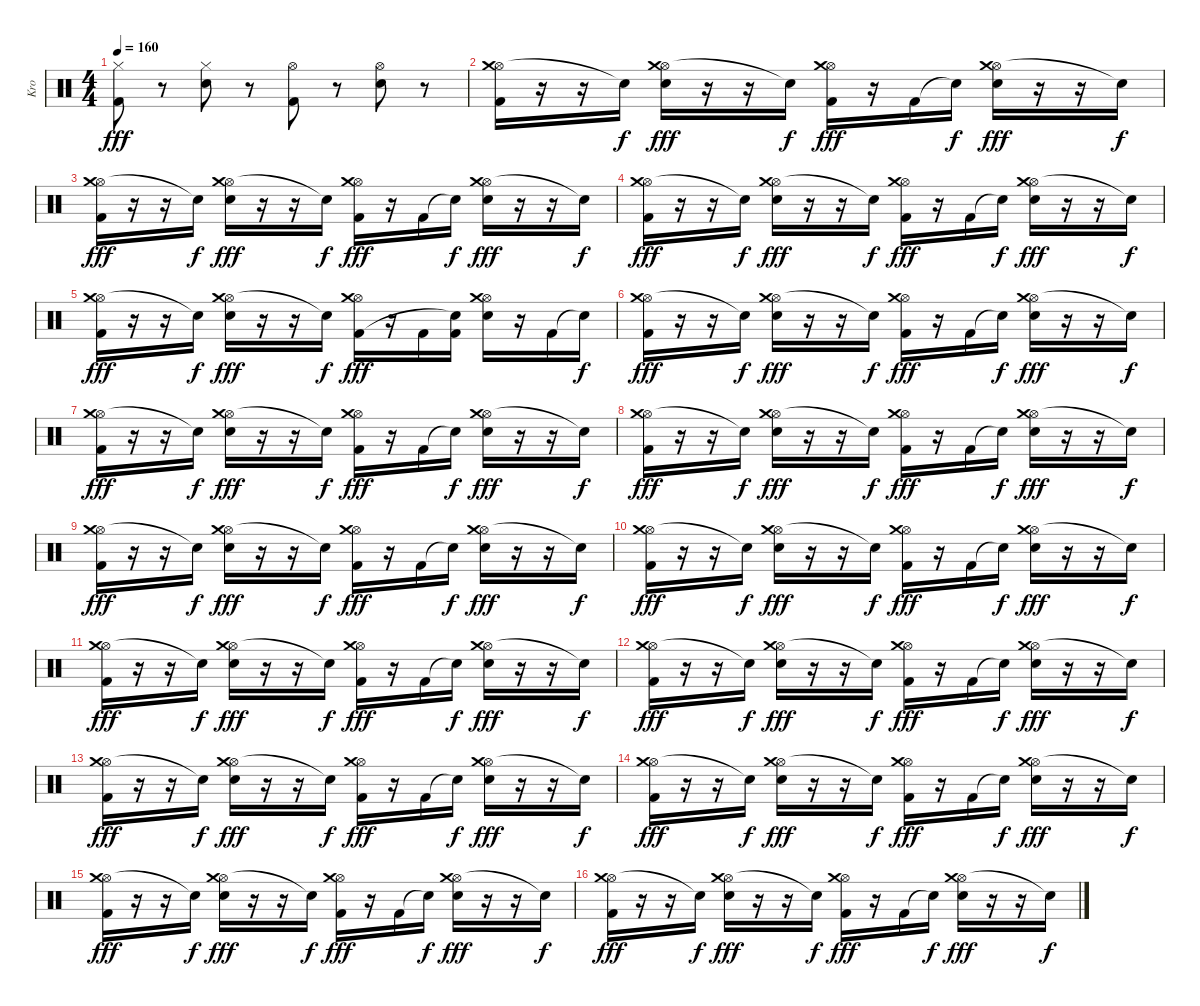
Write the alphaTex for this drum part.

\track ("Kro" "Kro") {instrument percussion}
\staff {score}
\articulation defaults
\ts (4 4)
\tempo 160
\clef neutral
\ks c
("Hi-Hat (closed)" "Kick (hit) 2").8{dy fff} r.8 ("Hi-Hat (closed)" "Snare (hit) 2").8 r.8 ("Hi-Hat (open)" "Kick (hit) 2").8 r.8 ("Hi-Hat (open)" "Snare (hit) 2").8 r.8 |
("Hi-Hat (open)" "Kick (hit) 2" "Crash medium (hit)").16 r.16 r.16 "Snare (hit)"{t}.16{dy f} ("Hi-Hat (open)" "Snare (hit) 2" "Crash medium (hit)").16{dy fff} r.16 r.16 "Snare (hit)"{t}.16{dy f} ("Hi-Hat (open)" "Kick (hit) 2" "Crash medium (hit)").16{dy fff} r.16 "Kick (hit) 2".16 "Snare (hit)"{t}.16{dy f} ("Hi-Hat (open)" "Snare (hit) 2" "Crash medium (hit)").16{dy fff} r.16 r.16 "Snare (hit)"{t}.16{dy f} |
("Hi-Hat (open)" "Kick (hit) 2" "Crash medium (hit)").16{dy fff} r.16 r.16 "Snare (hit)"{t}.16{dy f} ("Hi-Hat (open)" "Snare (hit) 2" "Crash medium (hit)").16{dy fff} r.16 r.16 "Snare (hit)"{t}.16{dy f} ("Hi-Hat (open)" "Kick (hit) 2" "Crash medium (hit)").16{dy fff} r.16 "Kick (hit) 2".16 "Snare (hit)"{t}.16{dy f} ("Hi-Hat (open)" "Snare (hit) 2" "Crash medium (hit)").16{dy fff} r.16 r.16 "Snare (hit)"{t}.16{dy f} |
("Hi-Hat (open)" "Kick (hit) 2" "Crash medium (hit)").16{dy fff} r.16 r.16 "Snare (hit)"{t}.16{dy f} ("Hi-Hat (open)" "Snare (hit) 2" "Crash medium (hit)").16{dy fff} r.16 r.16 "Snare (hit)"{t}.16{dy f} ("Hi-Hat (open)" "Kick (hit) 2" "Crash medium (hit)").16{dy fff} r.16 "Kick (hit) 2".16 "Snare (hit)"{t}.16{dy f} ("Hi-Hat (open)" "Snare (hit) 2" "Crash medium (hit)").16{dy fff} r.16 r.16 "Snare (hit)"{t}.16{dy f} |
("Hi-Hat (open)" "Kick (hit) 2" "Crash medium (hit)").16{dy fff} r.16 r.16 "Snare (hit)"{t}.16{dy f} ("Hi-Hat (open)" "Snare (hit) 2" "Crash medium (hit)").16{dy fff} r.16 r.16 "Snare (hit)"{t}.16{dy f} ("Hi-Hat (open)" "Kick (hit) 2" "Crash medium (hit)").16{dy fff} r.16 "Kick (hit) 2".16 ("Kick (hit) 2" "Snare (hit)"{t}).16 ("Hi-Hat (open)" "Snare (hit) 2" "Crash medium (hit)").16 r.16 "Kick (hit) 2".16 "Snare (hit)"{t}.16{dy f} |
("Hi-Hat (open)" "Kick (hit) 2" "Crash medium (hit)").16{dy fff} r.16 r.16 "Snare (hit)"{t}.16{dy f} ("Hi-Hat (open)" "Snare (hit) 2" "Crash medium (hit)").16{dy fff} r.16 r.16 "Snare (hit)"{t}.16{dy f} ("Hi-Hat (open)" "Kick (hit) 2" "Crash medium (hit)").16{dy fff} r.16 "Kick (hit) 2".16 "Snare (hit)"{t}.16{dy f} ("Hi-Hat (open)" "Snare (hit) 2" "Crash medium (hit)").16{dy fff} r.16 r.16 "Snare (hit)"{t}.16{dy f} |
("Hi-Hat (open)" "Kick (hit) 2" "Crash medium (hit)").16{dy fff} r.16 r.16 "Snare (hit)"{t}.16{dy f} ("Hi-Hat (open)" "Snare (hit) 2" "Crash medium (hit)").16{dy fff} r.16 r.16 "Snare (hit)"{t}.16{dy f} ("Hi-Hat (open)" "Kick (hit) 2" "Crash medium (hit)").16{dy fff} r.16 "Kick (hit) 2".16 "Snare (hit)"{t}.16{dy f} ("Hi-Hat (open)" "Snare (hit) 2" "Crash medium (hit)").16{dy fff} r.16 r.16 "Snare (hit)"{t}.16{dy f} |
("Hi-Hat (open)" "Kick (hit) 2" "Crash medium (hit)").16{dy fff} r.16 r.16 "Snare (hit)"{t}.16{dy f} ("Hi-Hat (open)" "Snare (hit) 2" "Crash medium (hit)").16{dy fff} r.16 r.16 "Snare (hit)"{t}.16{dy f} ("Hi-Hat (open)" "Kick (hit) 2" "Crash medium (hit)").16{dy fff} r.16 "Kick (hit) 2".16 "Snare (hit)"{t}.16{dy f} ("Hi-Hat (open)" "Snare (hit) 2" "Crash medium (hit)").16{dy fff} r.16 r.16 "Snare (hit)"{t}.16{dy f} |
("Hi-Hat (open)" "Kick (hit) 2" "Crash medium (hit)").16{dy fff} r.16 r.16 "Snare (hit)"{t}.16{dy f} ("Hi-Hat (open)" "Snare (hit) 2" "Crash medium (hit)").16{dy fff} r.16 r.16 "Snare (hit)"{t}.16{dy f} ("Hi-Hat (open)" "Kick (hit) 2" "Crash medium (hit)").16{dy fff} r.16 "Kick (hit) 2".16 "Snare (hit)"{t}.16{dy f} ("Hi-Hat (open)" "Snare (hit) 2" "Crash medium (hit)").16{dy fff} r.16 r.16 "Snare (hit)"{t}.16{dy f} |
("Hi-Hat (open)" "Kick (hit) 2" "Crash medium (hit)").16{dy fff} r.16 r.16 "Snare (hit)"{t}.16{dy f} ("Hi-Hat (open)" "Snare (hit) 2" "Crash medium (hit)").16{dy fff} r.16 r.16 "Snare (hit)"{t}.16{dy f} ("Hi-Hat (open)" "Kick (hit) 2" "Crash medium (hit)").16{dy fff} r.16 "Kick (hit) 2".16 "Snare (hit)"{t}.16{dy f} ("Hi-Hat (open)" "Snare (hit) 2" "Crash medium (hit)").16{dy fff} r.16 r.16 "Snare (hit)"{t}.16{dy f} |
("Hi-Hat (open)" "Kick (hit) 2" "Crash medium (hit)").16{dy fff} r.16 r.16 "Snare (hit)"{t}.16{dy f} ("Hi-Hat (open)" "Snare (hit) 2" "Crash medium (hit)").16{dy fff} r.16 r.16 "Snare (hit)"{t}.16{dy f} ("Hi-Hat (open)" "Kick (hit) 2" "Crash medium (hit)").16{dy fff} r.16 "Kick (hit) 2".16 "Snare (hit)"{t}.16{dy f} ("Hi-Hat (open)" "Snare (hit) 2" "Crash medium (hit)").16{dy fff} r.16 r.16 "Snare (hit)"{t}.16{dy f} |
("Hi-Hat (open)" "Kick (hit) 2" "Crash medium (hit)").16{dy fff} r.16 r.16 "Snare (hit)"{t}.16{dy f} ("Hi-Hat (open)" "Snare (hit) 2" "Crash medium (hit)").16{dy fff} r.16 r.16 "Snare (hit)"{t}.16{dy f} ("Hi-Hat (open)" "Kick (hit) 2" "Crash medium (hit)").16{dy fff} r.16 "Kick (hit) 2".16 "Snare (hit)"{t}.16{dy f} ("Hi-Hat (open)" "Snare (hit) 2" "Crash medium (hit)").16{dy fff} r.16 r.16 "Snare (hit)"{t}.16{dy f} |
("Hi-Hat (open)" "Kick (hit) 2" "Crash medium (hit)").16{dy fff} r.16 r.16 "Snare (hit)"{t}.16{dy f} ("Hi-Hat (open)" "Snare (hit) 2" "Crash medium (hit)").16{dy fff} r.16 r.16 "Snare (hit)"{t}.16{dy f} ("Hi-Hat (open)" "Kick (hit) 2" "Crash medium (hit)").16{dy fff} r.16 "Kick (hit) 2".16 "Snare (hit)"{t}.16{dy f} ("Hi-Hat (open)" "Snare (hit) 2" "Crash medium (hit)").16{dy fff} r.16 r.16 "Snare (hit)"{t}.16{dy f} |
("Hi-Hat (open)" "Kick (hit) 2" "Crash medium (hit)").16{dy fff} r.16 r.16 "Snare (hit)"{t}.16{dy f} ("Hi-Hat (open)" "Snare (hit) 2" "Crash medium (hit)").16{dy fff} r.16 r.16 "Snare (hit)"{t}.16{dy f} ("Hi-Hat (open)" "Kick (hit) 2" "Crash medium (hit)").16{dy fff} r.16 "Kick (hit) 2".16 "Snare (hit)"{t}.16{dy f} ("Hi-Hat (open)" "Snare (hit) 2" "Crash medium (hit)").16{dy fff} r.16 r.16 "Snare (hit)"{t}.16{dy f} |
("Hi-Hat (open)" "Kick (hit) 2" "Crash medium (hit)").16{dy fff} r.16 r.16 "Snare (hit)"{t}.16{dy f} ("Hi-Hat (open)" "Snare (hit) 2" "Crash medium (hit)").16{dy fff} r.16 r.16 "Snare (hit)"{t}.16{dy f} ("Hi-Hat (open)" "Kick (hit) 2" "Crash medium (hit)").16{dy fff} r.16 "Kick (hit) 2".16 "Snare (hit)"{t}.16{dy f} ("Hi-Hat (open)" "Snare (hit) 2" "Crash medium (hit)").16{dy fff} r.16 r.16 "Snare (hit)"{t}.16{dy f} |
("Hi-Hat (open)" "Kick (hit) 2" "Crash medium (hit)").16{dy fff} r.16 r.16 "Snare (hit)"{t}.16{dy f} ("Hi-Hat (open)" "Snare (hit) 2" "Crash medium (hit)").16{dy fff} r.16 r.16 "Snare (hit)"{t}.16{dy f} ("Hi-Hat (open)" "Kick (hit) 2" "Crash medium (hit)").16{dy fff} r.16 "Kick (hit) 2".16 "Snare (hit)"{t}.16{dy f} ("Hi-Hat (open)" "Snare (hit) 2" "Crash medium (hit)").16{dy fff} r.16 r.16 "Snare (hit)"{t}.16{dy f}
